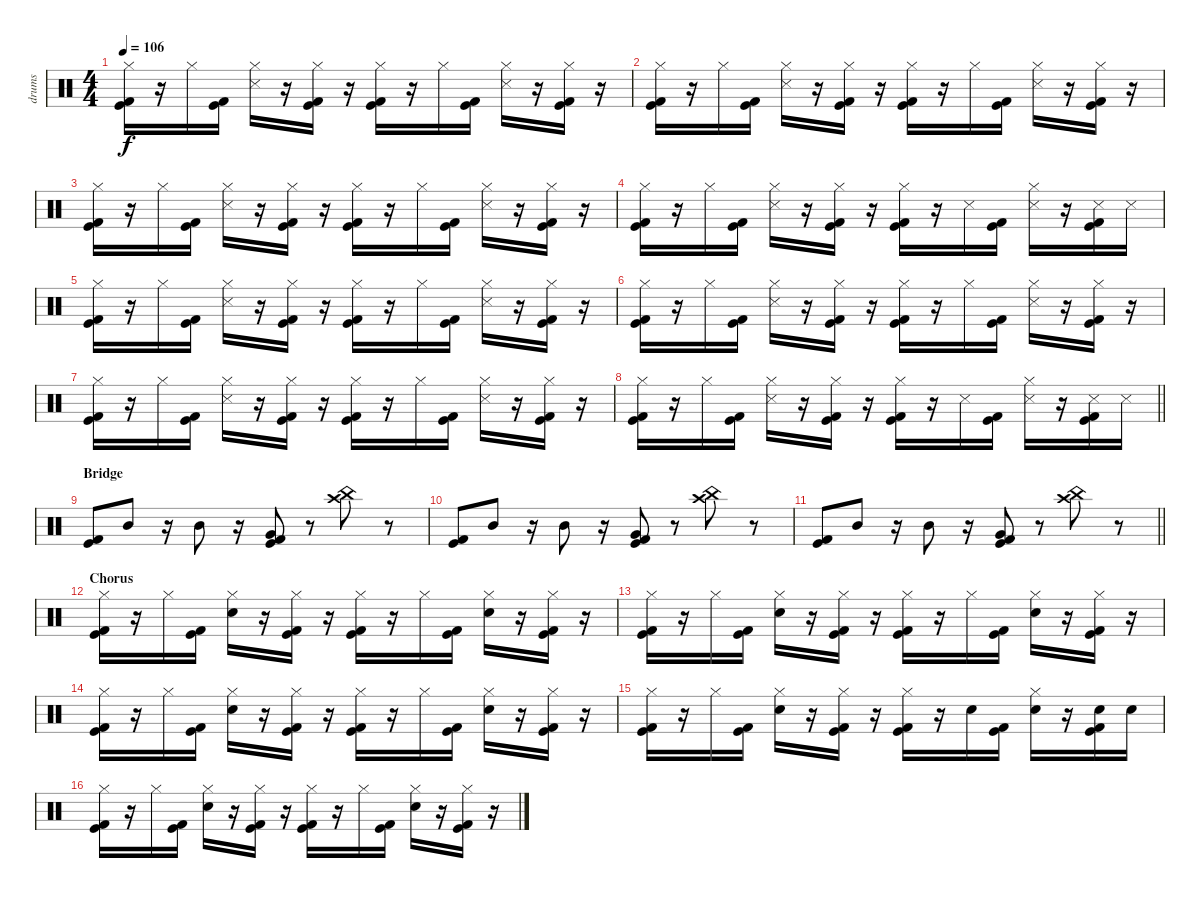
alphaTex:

\track ("drums" "drums") {instrument percussion}
\staff {score}
\articulation defaults
\ts (4 4)
\tempo 106
\clef neutral
\ks c
("Hi-Hat (closed)" "Kick (hit) 2" "Kick (hit)").16{dy f} r.16 "Hi-Hat (closed)".16 ("Kick (hit) 2" "Kick (hit)").16 ("Hi-Hat (closed)" "Snare (side stick) 3").16 r.16 ("Hi-Hat (closed)" "Kick (hit) 2" "Kick (hit)").16 r.16 ("Hi-Hat (closed)" "Kick (hit) 2" "Kick (hit)").16 r.16 "Hi-Hat (closed)".16 ("Kick (hit) 2" "Kick (hit)").16 ("Hi-Hat (closed)" "Snare (side stick) 3").16 r.16 ("Hi-Hat (closed)" "Kick (hit) 2" "Kick (hit)").16 r.16 |
("Hi-Hat (closed)" "Kick (hit) 2" "Kick (hit)").16 r.16 "Hi-Hat (closed)".16 ("Kick (hit) 2" "Kick (hit)").16 ("Hi-Hat (closed)" "Snare (side stick) 3").16 r.16 ("Hi-Hat (closed)" "Kick (hit) 2" "Kick (hit)").16 r.16 ("Hi-Hat (closed)" "Kick (hit) 2" "Kick (hit)").16 r.16 "Hi-Hat (closed)".16 ("Kick (hit) 2" "Kick (hit)").16 ("Hi-Hat (closed)" "Snare (side stick) 3").16 r.16 ("Hi-Hat (closed)" "Kick (hit) 2" "Kick (hit)").16 r.16 |
("Hi-Hat (closed)" "Kick (hit) 2" "Kick (hit)").16 r.16 "Hi-Hat (closed)".16 ("Kick (hit) 2" "Kick (hit)").16 ("Hi-Hat (closed)" "Snare (side stick) 3").16 r.16 ("Hi-Hat (closed)" "Kick (hit) 2" "Kick (hit)").16 r.16 ("Hi-Hat (closed)" "Kick (hit) 2" "Kick (hit)").16 r.16 "Hi-Hat (closed)".16 ("Kick (hit) 2" "Kick (hit)").16 ("Hi-Hat (closed)" "Snare (side stick) 3").16 r.16 ("Hi-Hat (closed)" "Kick (hit) 2" "Kick (hit)").16 r.16 |
("Hi-Hat (closed)" "Kick (hit) 2" "Kick (hit)").16 r.16 "Hi-Hat (closed)".16 ("Kick (hit) 2" "Kick (hit)").16 ("Hi-Hat (closed)" "Snare (side stick) 3").16 r.16 ("Hi-Hat (closed)" "Kick (hit) 2" "Kick (hit)").16 r.16 ("Hi-Hat (closed)" "Kick (hit) 2" "Kick (hit)").16 r.16 "Snare (side stick) 3".16 ("Kick (hit) 2" "Kick (hit)").16 ("Hi-Hat (closed)" "Snare (side stick) 3").16 r.16 ("Snare (side stick) 3" "Kick (hit) 2" "Kick (hit)").16 "Snare (side stick) 3".16 |
("Hi-Hat (closed)" "Kick (hit) 2" "Kick (hit)").16 r.16 "Hi-Hat (closed)".16 ("Kick (hit) 2" "Kick (hit)").16 ("Hi-Hat (closed)" "Snare (side stick) 3").16 r.16 ("Hi-Hat (closed)" "Kick (hit) 2" "Kick (hit)").16 r.16 ("Hi-Hat (closed)" "Kick (hit) 2" "Kick (hit)").16 r.16 "Hi-Hat (closed)".16 ("Kick (hit) 2" "Kick (hit)").16 ("Hi-Hat (closed)" "Snare (side stick) 3").16 r.16 ("Hi-Hat (closed)" "Kick (hit) 2" "Kick (hit)").16 r.16 |
("Hi-Hat (closed)" "Kick (hit) 2" "Kick (hit)").16 r.16 "Hi-Hat (closed)".16 ("Kick (hit) 2" "Kick (hit)").16 ("Hi-Hat (closed)" "Snare (side stick) 3").16 r.16 ("Hi-Hat (closed)" "Kick (hit) 2" "Kick (hit)").16 r.16 ("Hi-Hat (closed)" "Kick (hit) 2" "Kick (hit)").16 r.16 "Hi-Hat (closed)".16 ("Kick (hit) 2" "Kick (hit)").16 ("Hi-Hat (closed)" "Snare (side stick) 3").16 r.16 ("Hi-Hat (closed)" "Kick (hit) 2" "Kick (hit)").16 r.16 |
("Hi-Hat (closed)" "Kick (hit) 2" "Kick (hit)").16 r.16 "Hi-Hat (closed)".16 ("Kick (hit) 2" "Kick (hit)").16 ("Hi-Hat (closed)" "Snare (side stick) 3").16 r.16 ("Hi-Hat (closed)" "Kick (hit) 2" "Kick (hit)").16 r.16 ("Hi-Hat (closed)" "Kick (hit) 2" "Kick (hit)").16 r.16 "Hi-Hat (closed)".16 ("Kick (hit) 2" "Kick (hit)").16 ("Hi-Hat (closed)" "Snare (side stick) 3").16 r.16 ("Hi-Hat (closed)" "Kick (hit) 2" "Kick (hit)").16 r.16 |
\barLineRight lightlight
("Hi-Hat (closed)" "Kick (hit) 2" "Kick (hit)").16 r.16 "Hi-Hat (closed)".16 ("Kick (hit) 2" "Kick (hit)").16 ("Hi-Hat (closed)" "Snare (side stick) 3").16 r.16 ("Hi-Hat (closed)" "Kick (hit) 2" "Kick (hit)").16 r.16 ("Hi-Hat (closed)" "Kick (hit) 2" "Kick (hit)").16 r.16 "Snare (side stick) 3".16 ("Kick (hit) 2" "Kick (hit)").16 ("Hi-Hat (closed)" "Snare (side stick) 3").16 r.16 ("Snare (side stick) 3" "Kick (hit) 2" "Kick (hit)").16 "Snare (side stick) 3".16 |
\section ("" "Bridge")
("Kick (hit) 2" "Kick (hit)").8 "Mid Tom (hit)".8 r.16 "Mid Tom (hit)".8 r.16 ("Very Low Tom (hit)" "Kick (hit) 2" "Kick (hit)").8 r.8 ("Crash high (hit)" "China (hit)").8 r.8 |
("Kick (hit) 2" "Kick (hit)").8 "Mid Tom (hit)".8 r.16 "Mid Tom (hit)".8 r.16 ("Very Low Tom (hit)" "Kick (hit) 2" "Kick (hit)").8 r.8 ("Crash high (hit)" "China (hit)").8 r.8 |
\barLineRight lightlight
("Kick (hit) 2" "Kick (hit)").8 "Mid Tom (hit)".8 r.16 "Mid Tom (hit)".8 r.16 ("Very Low Tom (hit)" "Kick (hit) 2" "Kick (hit)").8 r.8 ("Crash high (hit)" "China (hit)").8 r.8 |
\section ("" "Chorus")
("Hi-Hat (closed)" "Kick (hit) 2" "Kick (hit)").16 r.16 "Hi-Hat (closed)".16 ("Kick (hit) 2" "Kick (hit)").16 ("Hi-Hat (closed)" "Electric Snare (hit)").16 r.16 ("Hi-Hat (closed)" "Kick (hit) 2" "Kick (hit)").16 r.16 ("Hi-Hat (closed)" "Kick (hit) 2" "Kick (hit)").16 r.16 "Hi-Hat (closed)".16 ("Kick (hit) 2" "Kick (hit)").16 ("Hi-Hat (closed)" "Electric Snare (hit)").16 r.16 ("Hi-Hat (closed)" "Kick (hit) 2" "Kick (hit)").16 r.16 |
("Hi-Hat (closed)" "Kick (hit) 2" "Kick (hit)").16 r.16 "Hi-Hat (closed)".16 ("Kick (hit) 2" "Kick (hit)").16 ("Hi-Hat (closed)" "Electric Snare (hit)").16 r.16 ("Hi-Hat (closed)" "Kick (hit) 2" "Kick (hit)").16 r.16 ("Hi-Hat (closed)" "Kick (hit) 2" "Kick (hit)").16 r.16 "Hi-Hat (closed)".16 ("Kick (hit) 2" "Kick (hit)").16 ("Hi-Hat (closed)" "Electric Snare (hit)").16 r.16 ("Hi-Hat (closed)" "Kick (hit) 2" "Kick (hit)").16 r.16 |
("Hi-Hat (closed)" "Kick (hit) 2" "Kick (hit)").16 r.16 "Hi-Hat (closed)".16 ("Kick (hit) 2" "Kick (hit)").16 ("Hi-Hat (closed)" "Electric Snare (hit)").16 r.16 ("Hi-Hat (closed)" "Kick (hit) 2" "Kick (hit)").16 r.16 ("Hi-Hat (closed)" "Kick (hit) 2" "Kick (hit)").16 r.16 "Hi-Hat (closed)".16 ("Kick (hit) 2" "Kick (hit)").16 ("Hi-Hat (closed)" "Electric Snare (hit)").16 r.16 ("Hi-Hat (closed)" "Kick (hit) 2" "Kick (hit)").16 r.16 |
("Hi-Hat (closed)" "Kick (hit) 2" "Kick (hit)").16 r.16 "Hi-Hat (closed)".16 ("Kick (hit) 2" "Kick (hit)").16 ("Hi-Hat (closed)" "Electric Snare (hit)").16 r.16 ("Hi-Hat (closed)" "Kick (hit) 2" "Kick (hit)").16 r.16 ("Hi-Hat (closed)" "Kick (hit) 2" "Kick (hit)").16 r.16 "Electric Snare (hit)".16 ("Kick (hit) 2" "Kick (hit)").16 ("Hi-Hat (closed)" "Electric Snare (hit)").16 r.16 ("Electric Snare (hit)" "Kick (hit) 2" "Kick (hit)").16 "Electric Snare (hit)".16 |
("Hi-Hat (closed)" "Kick (hit) 2" "Kick (hit)").16 r.16 "Hi-Hat (closed)".16 ("Kick (hit) 2" "Kick (hit)").16 ("Hi-Hat (closed)" "Electric Snare (hit)").16 r.16 ("Hi-Hat (closed)" "Kick (hit) 2" "Kick (hit)").16 r.16 ("Hi-Hat (closed)" "Kick (hit) 2" "Kick (hit)").16 r.16 "Hi-Hat (closed)".16 ("Kick (hit) 2" "Kick (hit)").16 ("Hi-Hat (closed)" "Electric Snare (hit)").16 r.16 ("Hi-Hat (closed)" "Kick (hit) 2" "Kick (hit)").16 r.16
